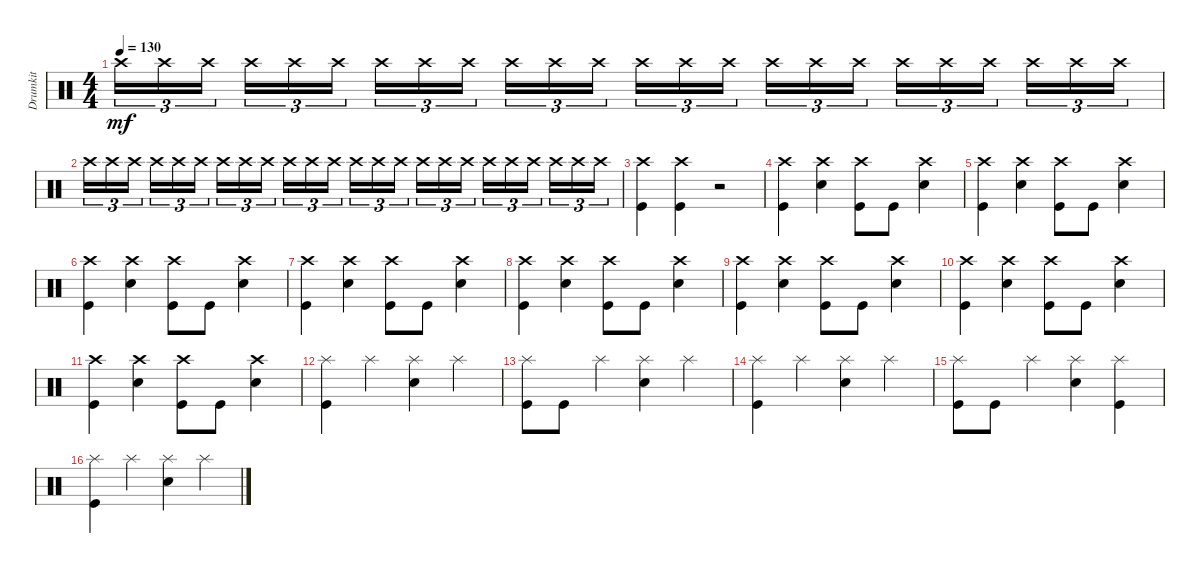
\track ("Drumkit" "Drumkit") {instrument percussion}
\staff {score}
\articulation defaults
\ts (4 4)
\tempo 130
\clef neutral
\ks c "Crash high (hit)".16{tu (3 2) dy mf volume 2 balance 8} "Crash high (hit)".16{tu (3 2)} "Crash high (hit)".16{tu (3 2)} "Crash high (hit)".16{tu (3 2)} "Crash high (hit)".16{tu (3 2)} "Crash high (hit)".16{tu (3 2)} "Crash high (hit)".16{tu (3 2) balance 12} "Crash high (hit)".16{tu (3 2)} "Crash high (hit)".16{tu (3 2)} "Crash high (hit)".16{tu (3 2)} "Crash high (hit)".16{tu (3 2)} "Crash high (hit)".16{tu (3 2)} "Crash high (hit)".16{tu (3 2)} "Crash high (hit)".16{tu (3 2)} "Crash high (hit)".16{tu (3 2)} "Crash high (hit)".16{tu (3 2) balance 3} "Crash high (hit)".16{tu (3 2)} "Crash high (hit)".16{tu (3 2)} "Crash high (hit)".16{tu (3 2)} "Crash high (hit)".16{tu (3 2)} "Crash high (hit)".16{tu (3 2)} "Crash high (hit)".16{tu (3 2)} "Crash high (hit)".16{tu (3 2)} "Crash high (hit)".16{tu (3 2)}
|
"Crash high (hit)".16{tu (3 2)} "Crash high (hit)".16{tu (3 2)} "Crash high (hit)".16{tu (3 2)} "Crash high (hit)".16{tu (3 2)} "Crash high (hit)".16{tu (3 2)} "Crash high (hit)".16{tu (3 2)} "Crash high (hit)".16{tu (3 2) balance 11} "Crash high (hit)".16{tu (3 2)} "Crash high (hit)".16{tu (3 2)} "Crash high (hit)".16{tu (3 2)} "Crash high (hit)".16{tu (3 2)} "Crash high (hit)".16{tu (3 2)} "Crash high (hit)".16{tu (3 2)} "Crash high (hit)".16{tu (3 2)} "Crash high (hit)".16{tu (3 2)} "Crash high (hit)".16{tu (3 2)} "Crash high (hit)".16{tu (3 2)} "Crash high (hit)".16{tu (3 2) balance 4} "Crash high (hit)".16{tu (3 2)} "Crash high (hit)".16{tu (3 2)} "Crash high (hit)".16{tu (3 2)} "Crash high (hit)".16{tu (3 2)} "Crash high (hit)".16{tu (3 2)} "Crash high (hit)".16{tu (3 2)} |
("Kick (hit)" "Crash high (hit)").4{volume 16 balance 8} ("Kick (hit)" "Crash high (hit)").4 r.2 |
("Kick (hit)" "Crash high (hit)").4 ("Snare (hit) 2" "Crash high (hit)").4 ("Kick (hit)" "Crash high (hit)").8 "Kick (hit)".8 ("Snare (hit) 2" "Crash high (hit)").4 |
("Kick (hit)" "Crash high (hit)").4 ("Snare (hit) 2" "Crash high (hit)").4 ("Kick (hit)" "Crash high (hit)").8 "Kick (hit)".8 ("Snare (hit) 2" "Crash high (hit)").4 |
("Kick (hit)" "Crash high (hit)").4 ("Snare (hit) 2" "Crash high (hit)").4 ("Kick (hit)" "Crash high (hit)").8 "Kick (hit)".8 ("Snare (hit) 2" "Crash high (hit)").4 |
("Kick (hit)" "Crash high (hit)").4 ("Snare (hit) 2" "Crash high (hit)").4 ("Kick (hit)" "Crash high (hit)").8 "Kick (hit)".8 ("Snare (hit) 2" "Crash high (hit)").4 |
("Kick (hit)" "Crash high (hit)").4 ("Snare (hit) 2" "Crash high (hit)").4 ("Kick (hit)" "Crash high (hit)").8 "Kick (hit)".8 ("Snare (hit) 2" "Crash high (hit)").4 |
("Kick (hit)" "Crash high (hit)").4 ("Snare (hit) 2" "Crash high (hit)").4 ("Kick (hit)" "Crash high (hit)").8 "Kick (hit)".8 ("Snare (hit) 2" "Crash high (hit)").4 |
("Kick (hit)" "Crash high (hit)").4 ("Snare (hit) 2" "Crash high (hit)").4 ("Kick (hit)" "Crash high (hit)").8 "Kick (hit)".8 ("Snare (hit) 2" "Crash high (hit)").4 |
("Kick (hit)" "Crash high (hit)").4 ("Snare (hit) 2" "Crash high (hit)").4 ("Kick (hit)" "Crash high (hit)").8 "Kick (hit)".8 ("Snare (hit) 2" "Crash high (hit)").4 |
("Kick (hit)" "Splash (hit)").4 "Splash (hit)".4 ("Snare (hit) 2" "Splash (hit)").4 "Splash (hit)".4 |
("Kick (hit)" "Splash (hit)").8 "Kick (hit)".8 "Splash (hit)".4 ("Snare (hit) 2" "Splash (hit)").4 "Splash (hit)".4 |
("Kick (hit)" "Splash (hit)").4 "Splash (hit)".4 ("Snare (hit) 2" "Splash (hit)").4 "Splash (hit)".4 |
("Kick (hit)" "Splash (hit)").8 "Kick (hit)".8 "Splash (hit)".4 ("Snare (hit) 2" "Splash (hit)").4 ("Splash (hit)" "Kick (hit)").4 |
("Kick (hit)" "Splash (hit)").4 "Splash (hit)".4 ("Snare (hit) 2" "Splash (hit)").4 "Splash (hit)".4
